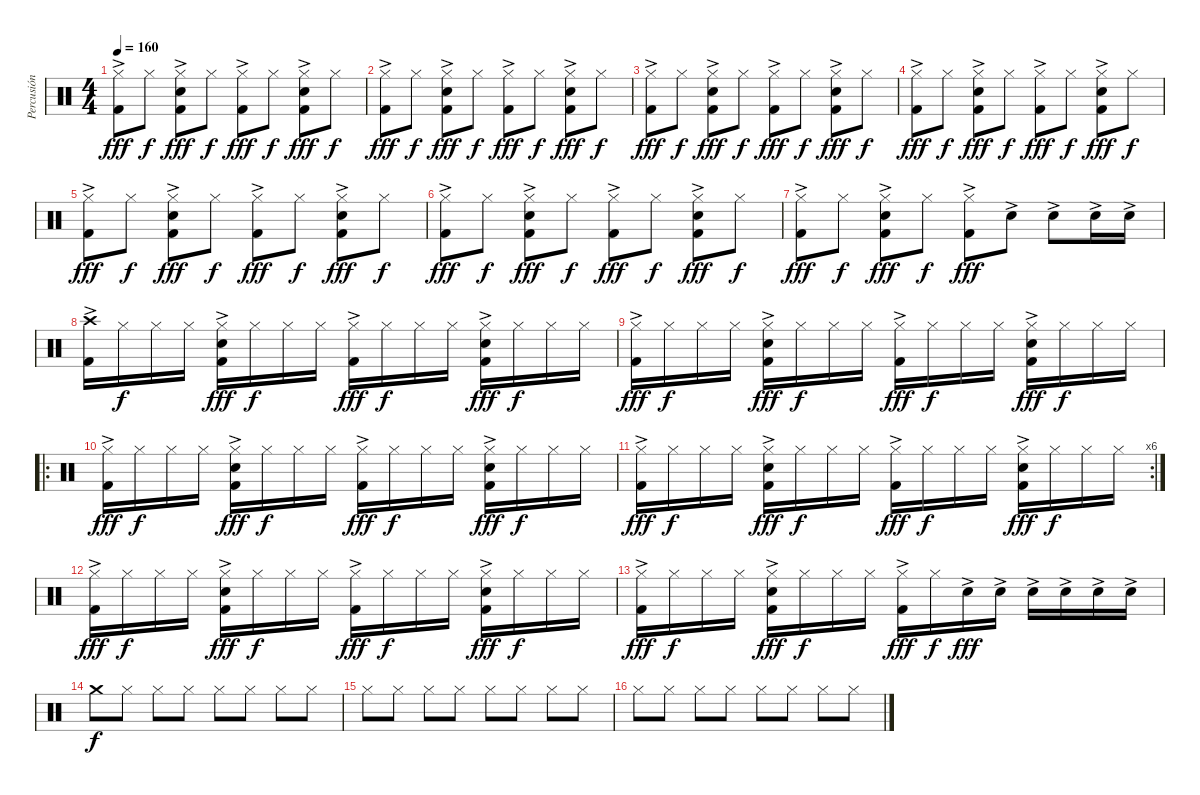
\track ("Percusión" "Percusión") {instrument percussion}
\staff {score}
\articulation defaults
\ts (4 4)
\tempo 160
\clef neutral
\ks c
("Hi-Hat (closed)" "Kick (hit) 2"{ac}).8{dy fff} "Hi-Hat (closed)".8{dy f} ("Hi-Hat (closed)" "Electric Snare (hit)" "Kick (hit) 2"{ac}).8{dy fff} "Hi-Hat (closed)".8{dy f} ("Hi-Hat (closed)" "Kick (hit) 2"{ac}).8{dy fff} "Hi-Hat (closed)".8{dy f} ("Hi-Hat (closed)" "Electric Snare (hit)" "Kick (hit) 2"{ac}).8{dy fff} "Hi-Hat (closed)".8{dy f} |
("Hi-Hat (closed)" "Kick (hit) 2"{ac}).8{dy fff} "Hi-Hat (closed)".8{dy f} ("Hi-Hat (closed)" "Electric Snare (hit)" "Kick (hit) 2"{ac}).8{dy fff} "Hi-Hat (closed)".8{dy f} ("Hi-Hat (closed)" "Kick (hit) 2"{ac}).8{dy fff} "Hi-Hat (closed)".8{dy f} ("Hi-Hat (closed)" "Electric Snare (hit)" "Kick (hit) 2"{ac}).8{dy fff} "Hi-Hat (closed)".8{dy f} |
("Hi-Hat (closed)" "Kick (hit) 2"{ac}).8{dy fff} "Hi-Hat (closed)".8{dy f} ("Hi-Hat (closed)" "Electric Snare (hit)" "Kick (hit) 2"{ac}).8{dy fff} "Hi-Hat (closed)".8{dy f} ("Hi-Hat (closed)" "Kick (hit) 2"{ac}).8{dy fff} "Hi-Hat (closed)".8{dy f} ("Hi-Hat (closed)" "Electric Snare (hit)" "Kick (hit) 2"{ac}).8{dy fff} "Hi-Hat (closed)".8{dy f} |
("Hi-Hat (closed)" "Kick (hit) 2"{ac}).8{dy fff} "Hi-Hat (closed)".8{dy f} ("Hi-Hat (closed)" "Electric Snare (hit)" "Kick (hit) 2"{ac}).8{dy fff} "Hi-Hat (closed)".8{dy f} ("Hi-Hat (closed)" "Kick (hit) 2"{ac}).8{dy fff} "Hi-Hat (closed)".8{dy f} ("Hi-Hat (closed)" "Electric Snare (hit)" "Kick (hit) 2"{ac}).8{dy fff} "Hi-Hat (closed)".8{dy f} |
("Hi-Hat (closed)" "Kick (hit) 2"{ac}).8{dy fff} "Hi-Hat (closed)".8{dy f} ("Hi-Hat (closed)" "Electric Snare (hit)" "Kick (hit) 2"{ac}).8{dy fff} "Hi-Hat (closed)".8{dy f} ("Hi-Hat (closed)" "Kick (hit) 2"{ac}).8{dy fff} "Hi-Hat (closed)".8{dy f} ("Hi-Hat (closed)" "Electric Snare (hit)" "Kick (hit) 2"{ac}).8{dy fff} "Hi-Hat (closed)".8{dy f} |
("Hi-Hat (closed)" "Kick (hit) 2"{ac}).8{dy fff} "Hi-Hat (closed)".8{dy f} ("Hi-Hat (closed)" "Electric Snare (hit)" "Kick (hit) 2"{ac}).8{dy fff} "Hi-Hat (closed)".8{dy f} ("Hi-Hat (closed)" "Kick (hit) 2"{ac}).8{dy fff} "Hi-Hat (closed)".8{dy f} ("Hi-Hat (closed)" "Electric Snare (hit)" "Kick (hit) 2"{ac}).8{dy fff} "Hi-Hat (closed)".8{dy f} |
("Hi-Hat (closed)" "Kick (hit) 2"{ac}).8{dy fff} "Hi-Hat (closed)".8{dy f} ("Hi-Hat (closed)" "Electric Snare (hit)" "Kick (hit) 2"{ac}).8{dy fff} "Hi-Hat (closed)".8{dy f} ("Hi-Hat (closed)" "Kick (hit) 2"{ac}).8{dy fff} "Electric Snare (hit)"{ac}.8 "Electric Snare (hit)"{ac}.8 "Electric Snare (hit)"{ac}.16 "Electric Snare (hit)"{ac}.16 |
("Crash high (hit)" "Kick (hit) 2"{ac}).16 "Hi-Hat (closed)".16{dy f} "Hi-Hat (closed)".16 "Hi-Hat (closed)".16 ("Hi-Hat (closed)"{ac} "Electric Snare (hit)"{ac} "Kick (hit) 2").16{dy fff} "Hi-Hat (closed)".16{dy f} "Hi-Hat (closed)".16 "Hi-Hat (closed)".16 ("Hi-Hat (closed)"{ac} "Kick (hit) 2"{ac}).16{dy fff} "Hi-Hat (closed)".16{dy f} "Hi-Hat (closed)".16 "Hi-Hat (closed)".16 ("Hi-Hat (closed)"{ac} "Electric Snare (hit)"{ac} "Kick (hit) 2").16{dy fff} "Hi-Hat (closed)".16{dy f} "Hi-Hat (closed)".16 "Hi-Hat (closed)".16 |
("Hi-Hat (closed)" "Kick (hit) 2"{ac}).16{dy fff} "Hi-Hat (closed)".16{dy f} "Hi-Hat (closed)".16 "Hi-Hat (closed)".16 ("Hi-Hat (closed)"{ac} "Electric Snare (hit)"{ac} "Kick (hit) 2").16{dy fff} "Hi-Hat (closed)".16{dy f} "Hi-Hat (closed)".16 "Hi-Hat (closed)".16 ("Hi-Hat (closed)"{ac} "Kick (hit) 2"{ac}).16{dy fff} "Hi-Hat (closed)".16{dy f} "Hi-Hat (closed)".16 "Hi-Hat (closed)".16 ("Hi-Hat (closed)"{ac} "Electric Snare (hit)"{ac} "Kick (hit) 2").16{dy fff} "Hi-Hat (closed)".16{dy f} "Hi-Hat (closed)".16 "Hi-Hat (closed)".16 |
\ro
("Hi-Hat (closed)" "Kick (hit) 2"{ac}).16{dy fff} "Hi-Hat (closed)".16{dy f} "Hi-Hat (closed)".16 "Hi-Hat (closed)".16 ("Hi-Hat (closed)"{ac} "Electric Snare (hit)"{ac} "Kick (hit) 2").16{dy fff} "Hi-Hat (closed)".16{dy f} "Hi-Hat (closed)".16 "Hi-Hat (closed)".16 ("Hi-Hat (closed)"{ac} "Kick (hit) 2"{ac}).16{dy fff} "Hi-Hat (closed)".16{dy f} "Hi-Hat (closed)".16 "Hi-Hat (closed)".16 ("Hi-Hat (closed)"{ac} "Electric Snare (hit)"{ac} "Kick (hit) 2").16{dy fff} "Hi-Hat (closed)".16{dy f} "Hi-Hat (closed)".16 "Hi-Hat (closed)".16 |
\rc 6
("Hi-Hat (closed)" "Kick (hit) 2"{ac}).16{dy fff} "Hi-Hat (closed)".16{dy f} "Hi-Hat (closed)".16 "Hi-Hat (closed)".16 ("Hi-Hat (closed)"{ac} "Electric Snare (hit)"{ac} "Kick (hit) 2").16{dy fff} "Hi-Hat (closed)".16{dy f} "Hi-Hat (closed)".16 "Hi-Hat (closed)".16 ("Hi-Hat (closed)"{ac} "Kick (hit) 2"{ac}).16{dy fff} "Hi-Hat (closed)".16{dy f} "Hi-Hat (closed)".16 "Hi-Hat (closed)".16 ("Hi-Hat (closed)"{ac} "Electric Snare (hit)"{ac} "Kick (hit) 2").16{dy fff} "Hi-Hat (closed)".16{dy f} "Hi-Hat (closed)".16 "Hi-Hat (closed)".16 |
("Hi-Hat (closed)" "Kick (hit) 2"{ac}).16{dy fff} "Hi-Hat (closed)".16{dy f} "Hi-Hat (closed)".16 "Hi-Hat (closed)".16 ("Hi-Hat (closed)"{ac} "Electric Snare (hit)"{ac} "Kick (hit) 2").16{dy fff} "Hi-Hat (closed)".16{dy f} "Hi-Hat (closed)".16 "Hi-Hat (closed)".16 ("Hi-Hat (closed)"{ac} "Kick (hit) 2"{ac}).16{dy fff} "Hi-Hat (closed)".16{dy f} "Hi-Hat (closed)".16 "Hi-Hat (closed)".16 ("Hi-Hat (closed)"{ac} "Electric Snare (hit)"{ac} "Kick (hit) 2").16{dy fff} "Hi-Hat (closed)".16{dy f} "Hi-Hat (closed)".16 "Hi-Hat (closed)".16 |
("Hi-Hat (closed)" "Kick (hit) 2"{ac}).16{dy fff} "Hi-Hat (closed)".16{dy f} "Hi-Hat (closed)".16 "Hi-Hat (closed)".16 ("Hi-Hat (closed)"{ac} "Electric Snare (hit)"{ac} "Kick (hit) 2").16{dy fff} "Hi-Hat (closed)".16{dy f} "Hi-Hat (closed)".16 "Hi-Hat (closed)".16 ("Hi-Hat (closed)"{ac} "Kick (hit) 2"{ac}).16{dy fff} "Hi-Hat (closed)".16{dy f} "Electric Snare (hit)"{ac}.16{dy fff} "Electric Snare (hit)"{ac}.16 "Electric Snare (hit)"{ac}.16 "Electric Snare (hit)"{ac}.16 "Electric Snare (hit)"{ac}.16 "Electric Snare (hit)"{ac}.16 |
"Crash medium (hit)".8{dy f} "Hi-Hat (closed)".8 "Hi-Hat (closed)".8 "Hi-Hat (closed)".8 "Hi-Hat (closed)".8 "Hi-Hat (closed)".8 "Hi-Hat (closed)".8 "Hi-Hat (closed)".8 |
"Hi-Hat (closed)".8 "Hi-Hat (closed)".8 "Hi-Hat (closed)".8 "Hi-Hat (closed)".8 "Hi-Hat (closed)".8 "Hi-Hat (closed)".8 "Hi-Hat (closed)".8 "Hi-Hat (closed)".8 |
"Hi-Hat (closed)".8 "Hi-Hat (closed)".8 "Hi-Hat (closed)".8 "Hi-Hat (closed)".8 "Hi-Hat (closed)".8 "Hi-Hat (closed)".8 "Hi-Hat (closed)".8 "Hi-Hat (closed)".8
